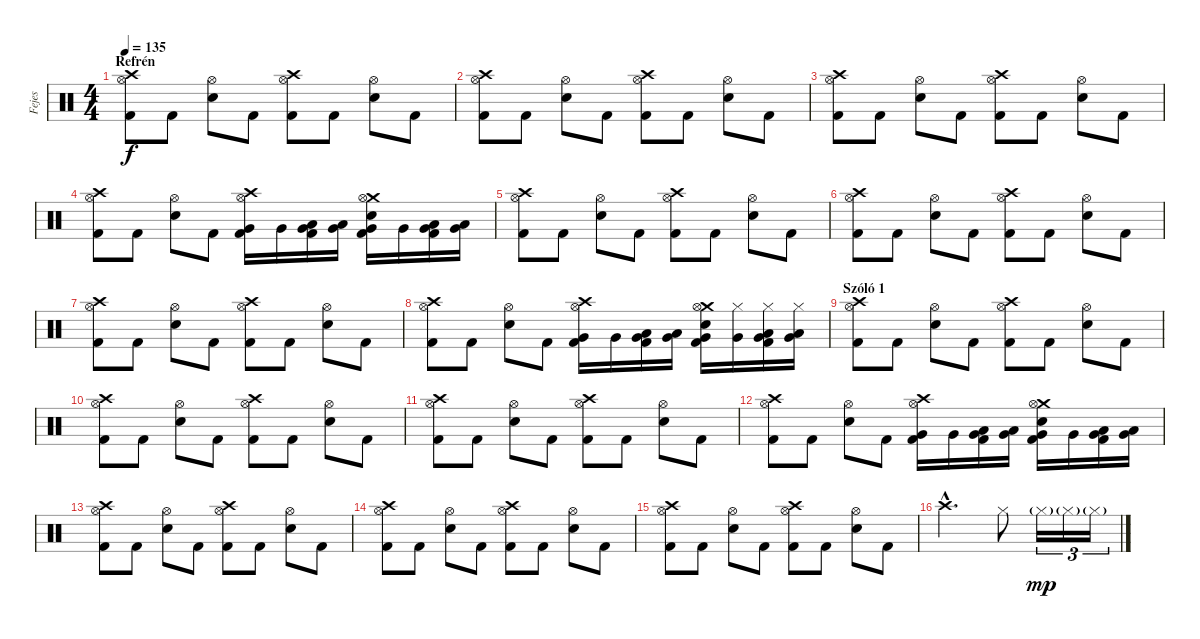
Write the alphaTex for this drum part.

\track ("Fejes" "Fejes") {instrument percussion}
\staff {score}
\articulation defaults
\ts (4 4)
\section ("" "Refrén")
\tempo 135
\clef neutral
\ks c
("Crash high (hit)" "Hi-Hat (open)" "Kick (hit) 2").8{dy f} "Kick (hit) 2".8 ("Hi-Hat (open)" "Electric Snare (hit)").8 "Kick (hit) 2".8 ("Crash high (hit)" "Hi-Hat (open)" "Kick (hit) 2").8 "Kick (hit) 2".8 ("Hi-Hat (open)" "Electric Snare (hit)").8 "Kick (hit) 2".8 |
("Crash high (hit)" "Hi-Hat (open)" "Kick (hit) 2").8 "Kick (hit) 2".8 ("Hi-Hat (open)" "Electric Snare (hit)").8 "Kick (hit) 2".8 ("Crash high (hit)" "Hi-Hat (open)" "Kick (hit) 2").8 "Kick (hit) 2".8 ("Hi-Hat (open)" "Electric Snare (hit)").8 "Kick (hit) 2".8 |
("Crash high (hit)" "Hi-Hat (open)" "Kick (hit) 2").8 "Kick (hit) 2".8 ("Hi-Hat (open)" "Electric Snare (hit)").8 "Kick (hit) 2".8 ("Crash high (hit)" "Hi-Hat (open)" "Kick (hit) 2").8 "Kick (hit) 2".8 ("Hi-Hat (open)" "Electric Snare (hit)").8 "Kick (hit) 2".8 |
("Crash high (hit)" "Hi-Hat (open)" "Kick (hit) 2").8 "Kick (hit) 2".8 ("Hi-Hat (open)" "Electric Snare (hit)").8 "Kick (hit) 2".8 ("Crash high (hit)" "Hi-Hat (open)" "Very Low Tom (hit)" "Kick (hit) 2").16 "Very Low Tom (hit)".16 ("Very Low Tom (hit)" "Low Tom (hit)" "Kick (hit) 2").16 ("Very Low Tom (hit)" "Low Tom (hit)").16 ("Crash medium (hit)" "Hi-Hat (open)" "Electric Snare (hit)" "Very Low Tom (hit)" "Kick (hit) 2").16 "Very Low Tom (hit)".16 ("Very Low Tom (hit)" "Low Tom (hit)" "Kick (hit) 2").16 ("Very Low Tom (hit)" "Low Tom (hit)").16 |
("Crash high (hit)" "Hi-Hat (open)" "Kick (hit) 2").8 "Kick (hit) 2".8 ("Hi-Hat (open)" "Electric Snare (hit)").8 "Kick (hit) 2".8 ("Crash high (hit)" "Hi-Hat (open)" "Kick (hit) 2").8 "Kick (hit) 2".8 ("Hi-Hat (open)" "Electric Snare (hit)").8 "Kick (hit) 2".8 |
("Crash high (hit)" "Hi-Hat (open)" "Kick (hit) 2").8 "Kick (hit) 2".8 ("Hi-Hat (open)" "Electric Snare (hit)").8 "Kick (hit) 2".8 ("Crash high (hit)" "Hi-Hat (open)" "Kick (hit) 2").8 "Kick (hit) 2".8 ("Hi-Hat (open)" "Electric Snare (hit)").8 "Kick (hit) 2".8 |
("Crash high (hit)" "Hi-Hat (open)" "Kick (hit) 2").8 "Kick (hit) 2".8 ("Hi-Hat (open)" "Electric Snare (hit)").8 "Kick (hit) 2".8 ("Crash high (hit)" "Hi-Hat (open)" "Kick (hit) 2").8 "Kick (hit) 2".8 ("Hi-Hat (open)" "Electric Snare (hit)").8 "Kick (hit) 2".8 |
("Crash high (hit)" "Hi-Hat (open)" "Kick (hit) 2").8 "Kick (hit) 2".8 ("Hi-Hat (open)" "Electric Snare (hit)").8 "Kick (hit) 2".8 ("Crash high (hit)" "Hi-Hat (open)" "Very Low Tom (hit)" "Kick (hit) 2").16 "Very Low Tom (hit)".16 ("Very Low Tom (hit)" "Low Tom (hit)" "Kick (hit) 2").16 ("Very Low Tom (hit)" "Low Tom (hit)").16 ("Crash medium (hit)" "Hi-Hat (open)" "Electric Snare (hit)" "Very Low Tom (hit)" "Kick (hit) 2").16 ("Hi-Hat (closed)" "Very Low Tom (hit)").16 ("Hi-Hat (closed)" "Very Low Tom (hit)" "Low Tom (hit)" "Kick (hit) 2").16 ("Hi-Hat (closed)" "Very Low Tom (hit)" "Low Tom (hit)").16 |
\section ("" "Szóló 1")
("Crash high (hit)" "Hi-Hat (open)" "Kick (hit) 2").8 "Kick (hit) 2".8 ("Hi-Hat (open)" "Electric Snare (hit)").8 "Kick (hit) 2".8 ("Crash high (hit)" "Hi-Hat (open)" "Kick (hit) 2").8 "Kick (hit) 2".8 ("Hi-Hat (open)" "Electric Snare (hit)").8 "Kick (hit) 2".8 |
("Crash high (hit)" "Hi-Hat (open)" "Kick (hit) 2").8 "Kick (hit) 2".8 ("Hi-Hat (open)" "Electric Snare (hit)").8 "Kick (hit) 2".8 ("Crash high (hit)" "Hi-Hat (open)" "Kick (hit) 2").8 "Kick (hit) 2".8 ("Hi-Hat (open)" "Electric Snare (hit)").8 "Kick (hit) 2".8 |
("Crash high (hit)" "Hi-Hat (open)" "Kick (hit) 2").8 "Kick (hit) 2".8 ("Hi-Hat (open)" "Electric Snare (hit)").8 "Kick (hit) 2".8 ("Crash high (hit)" "Hi-Hat (open)" "Kick (hit) 2").8 "Kick (hit) 2".8 ("Hi-Hat (open)" "Electric Snare (hit)").8 "Kick (hit) 2".8 |
("Crash high (hit)" "Hi-Hat (open)" "Kick (hit) 2").8 "Kick (hit) 2".8 ("Hi-Hat (open)" "Electric Snare (hit)").8 "Kick (hit) 2".8 ("Crash high (hit)" "Hi-Hat (open)" "Very Low Tom (hit)" "Kick (hit) 2").16 "Very Low Tom (hit)".16 ("Very Low Tom (hit)" "Low Tom (hit)" "Kick (hit) 2").16 ("Very Low Tom (hit)" "Low Tom (hit)").16 ("Crash medium (hit)" "Hi-Hat (open)" "Electric Snare (hit)" "Very Low Tom (hit)" "Kick (hit) 2").16 "Very Low Tom (hit)".16 ("Very Low Tom (hit)" "Low Tom (hit)" "Kick (hit) 2").16 ("Very Low Tom (hit)" "Low Tom (hit)").16 |
("Crash high (hit)" "Hi-Hat (open)" "Kick (hit) 2").8 "Kick (hit) 2".8 ("Hi-Hat (open)" "Electric Snare (hit)").8 "Kick (hit) 2".8 ("Crash high (hit)" "Hi-Hat (open)" "Kick (hit) 2").8 "Kick (hit) 2".8 ("Hi-Hat (open)" "Electric Snare (hit)").8 "Kick (hit) 2".8 |
("Crash high (hit)" "Hi-Hat (open)" "Kick (hit) 2").8 "Kick (hit) 2".8 ("Hi-Hat (open)" "Electric Snare (hit)").8 "Kick (hit) 2".8 ("Crash high (hit)" "Hi-Hat (open)" "Kick (hit) 2").8 "Kick (hit) 2".8 ("Hi-Hat (open)" "Electric Snare (hit)").8 "Kick (hit) 2".8 |
("Crash high (hit)" "Hi-Hat (open)" "Kick (hit) 2").8 "Kick (hit) 2".8 ("Hi-Hat (open)" "Electric Snare (hit)").8 "Kick (hit) 2".8 ("Crash high (hit)" "Hi-Hat (open)" "Kick (hit) 2").8 "Kick (hit) 2".8 ("Hi-Hat (open)" "Electric Snare (hit)").8 "Kick (hit) 2".8 |
"Crash high (hit)"{hac}.2{d} "Hi-Hat (closed)".8 "Hi-Hat (closed)"{g}.16{tu (3 2) dy mp} "Hi-Hat (closed)"{g}.16{tu (3 2)} "Hi-Hat (closed)"{g}.16{tu (3 2)}
